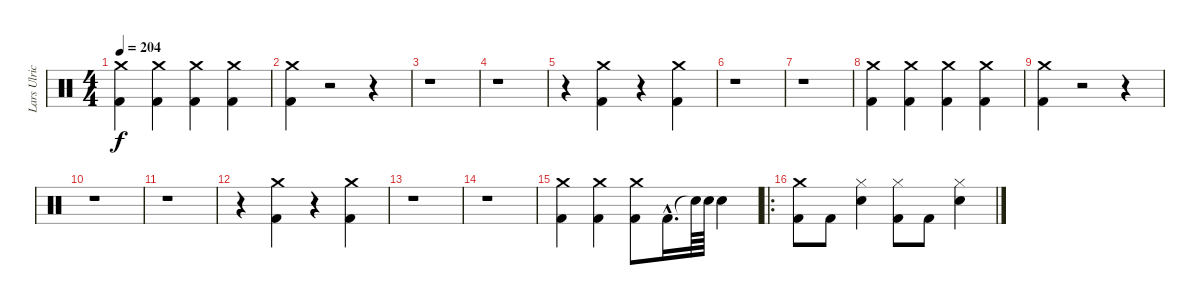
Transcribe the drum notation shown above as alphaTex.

\track ("Lars Ulrich (Drums)" "Lars Ulric") {instrument percussion}
\staff {score}
\articulation defaults
\ts (4 4)
\tempo 204
\clef neutral
\ks c
("Kick (hit) 2" "Crash medium (hit)").4{dy f} ("Kick (hit) 2" "Crash medium (hit)").4 ("Kick (hit) 2" "Crash medium (hit)").4 ("Kick (hit) 2" "Crash medium (hit)").4 |
("Kick (hit) 2" "Crash medium (hit)").4 r.2 r.4 |
r.1 |
r.1 |
r.4 ("Kick (hit) 2" "Crash medium (hit)").4 r.4 ("Kick (hit) 2" "Crash medium (hit)").4 |
r.1 |
r.1 |
("Kick (hit) 2" "Crash medium (hit)").4 ("Kick (hit) 2" "Crash medium (hit)").4 ("Kick (hit) 2" "Crash medium (hit)").4 ("Kick (hit) 2" "Crash medium (hit)").4 |
("Kick (hit) 2" "Crash medium (hit)").4 r.2 r.4 |
r.1 |
r.1 |
r.4 ("Kick (hit) 2" "Crash medium (hit)").4 r.4 ("Kick (hit) 2" "Crash medium (hit)").4 |
r.1 |
r.1 |
("Kick (hit) 2" "Crash medium (hit)").4 ("Kick (hit) 2" "Crash medium (hit)").4 ("Kick (hit) 2" "Crash medium (hit)").8 "Kick (hit) 2"{hac}.16{d} "Snare (hit)"{t}.64 "Snare (hit) 2".64 "Snare (hit) 2".4 |
\ro
("Crash medium (hit)" "Kick (hit) 2").8 "Kick (hit) 2".8 ("Hi-Hat (closed)" "Snare (hit) 2").4 ("Hi-Hat (closed)" "Kick (hit) 2").8 "Kick (hit) 2".8 ("Snare (hit) 2" "Hi-Hat (closed)").4
